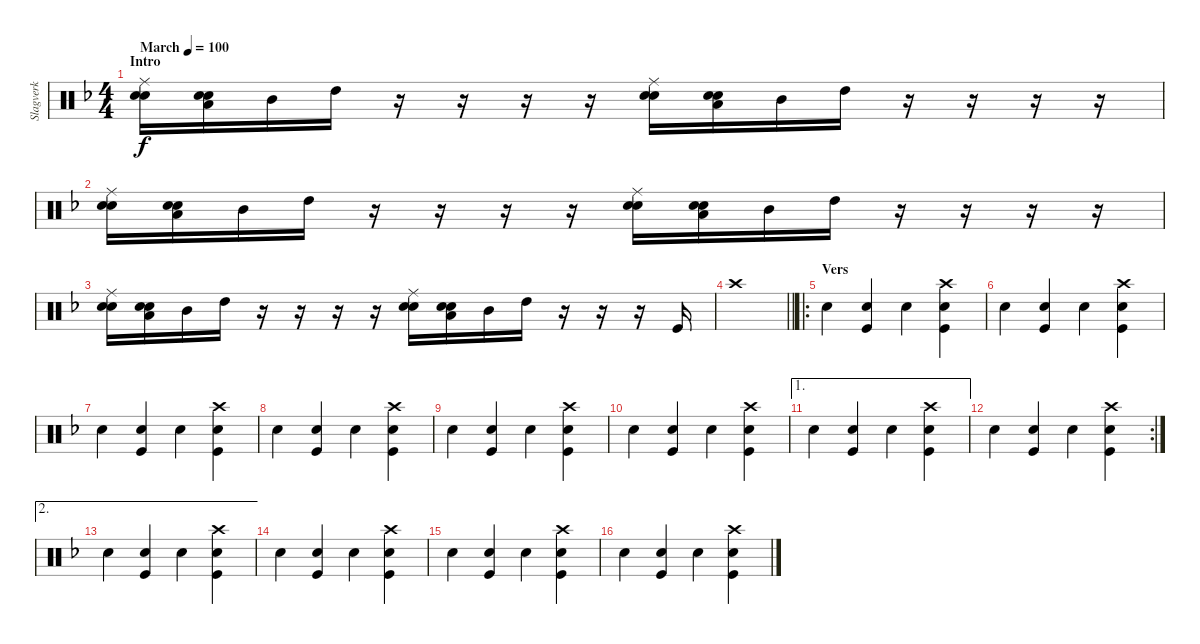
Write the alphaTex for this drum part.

\track ("Slagverk" "Slagverk") {instrument percussion}
\staff {score}
\articulation defaults
\ts (4 4)
\section ("" "Intro")
\tempo (100 "March")
\clef neutral
\ks f
("Snare (hit) 2" "Snare (hit) 2" "Ride (middle)").16{dy f} ("Snare (hit) 2" "Snare (hit) 2" "Low Tom (hit)").16 "Mid Tom (hit)".16 "High Tom (hit)".16 r.16 r.16 r.16 r.16 ("Snare (hit) 2" "Snare (hit) 2" "Ride (middle)").16 ("Snare (hit) 2" "Snare (hit) 2" "Low Tom (hit)").16 "Mid Tom (hit)".16 "High Tom (hit)".16 r.16 r.16 r.16 r.16 |
("Snare (hit) 2" "Snare (hit) 2" "Ride (middle)").16 ("Snare (hit) 2" "Snare (hit) 2" "Low Tom (hit)").16 "Mid Tom (hit)".16 "High Tom (hit)".16 r.16 r.16 r.16 r.16 ("Snare (hit) 2" "Snare (hit) 2" "Ride (middle)").16 ("Snare (hit) 2" "Snare (hit) 2" "Low Tom (hit)").16 "Mid Tom (hit)".16 "High Tom (hit)".16 r.16 r.16 r.16 r.16 |
("Snare (hit) 2" "Snare (hit) 2" "Ride (middle)").16 ("Snare (hit) 2" "Snare (hit) 2" "Low Tom (hit)").16 "Mid Tom (hit)".16 "High Tom (hit)".16 r.16 r.16 r.16 r.16 ("Snare (hit) 2" "Snare (hit) 2" "Ride (middle)").16 ("Snare (hit) 2" "Snare (hit) 2" "Low Tom (hit)").16 "Mid Tom (hit)".16 "High Tom (hit)".16 r.16 r.16 r.16 "Kick (hit)".16 |
\barLineRight lightlight "Crash high (hit)".1
|
\ro
\section ("" "Vers")
"Snare (hit) 2".4{volume 11} ("Snare (hit) 2" "Kick (hit)").4 "Snare (hit) 2".4 ("Snare (hit) 2" "Crash high (hit)" "Kick (hit)").4 |
"Snare (hit) 2".4 ("Snare (hit) 2" "Kick (hit)").4 "Snare (hit) 2".4 ("Snare (hit) 2" "Crash high (hit)" "Kick (hit)").4 |
"Snare (hit) 2".4 ("Snare (hit) 2" "Kick (hit)").4 "Snare (hit) 2".4 ("Snare (hit) 2" "Crash high (hit)" "Kick (hit)").4 |
"Snare (hit) 2".4 ("Snare (hit) 2" "Kick (hit)").4 "Snare (hit) 2".4 ("Snare (hit) 2" "Crash high (hit)" "Kick (hit)").4 |
"Snare (hit) 2".4 ("Snare (hit) 2" "Kick (hit)").4 "Snare (hit) 2".4 ("Snare (hit) 2" "Crash high (hit)" "Kick (hit)").4 |
"Snare (hit) 2".4 ("Snare (hit) 2" "Kick (hit)").4 "Snare (hit) 2".4 ("Snare (hit) 2" "Crash high (hit)" "Kick (hit)").4 |
\ae 1 "Snare (hit) 2".4
("Snare (hit) 2" "Kick (hit)").4 "Snare (hit) 2".4 ("Snare (hit) 2" "Crash high (hit)" "Kick (hit)").4 |
\rc 2 "Snare (hit) 2".4
("Snare (hit) 2" "Kick (hit)").4 "Snare (hit) 2".4 ("Snare (hit) 2" "Crash high (hit)" "Kick (hit)").4 |
\ae 2 "Snare (hit) 2".4
("Snare (hit) 2" "Kick (hit)").4 "Snare (hit) 2".4 ("Snare (hit) 2" "Crash high (hit)" "Kick (hit)").4 |
"Snare (hit) 2".4 ("Snare (hit) 2" "Kick (hit)").4 "Snare (hit) 2".4 ("Snare (hit) 2" "Crash high (hit)" "Kick (hit)").4 |
"Snare (hit) 2".4 ("Snare (hit) 2" "Kick (hit)").4 "Snare (hit) 2".4 ("Snare (hit) 2" "Crash high (hit)" "Kick (hit)").4 |
"Snare (hit) 2".4 ("Snare (hit) 2" "Kick (hit)").4 "Snare (hit) 2".4 ("Snare (hit) 2" "Crash high (hit)" "Kick (hit)").4
